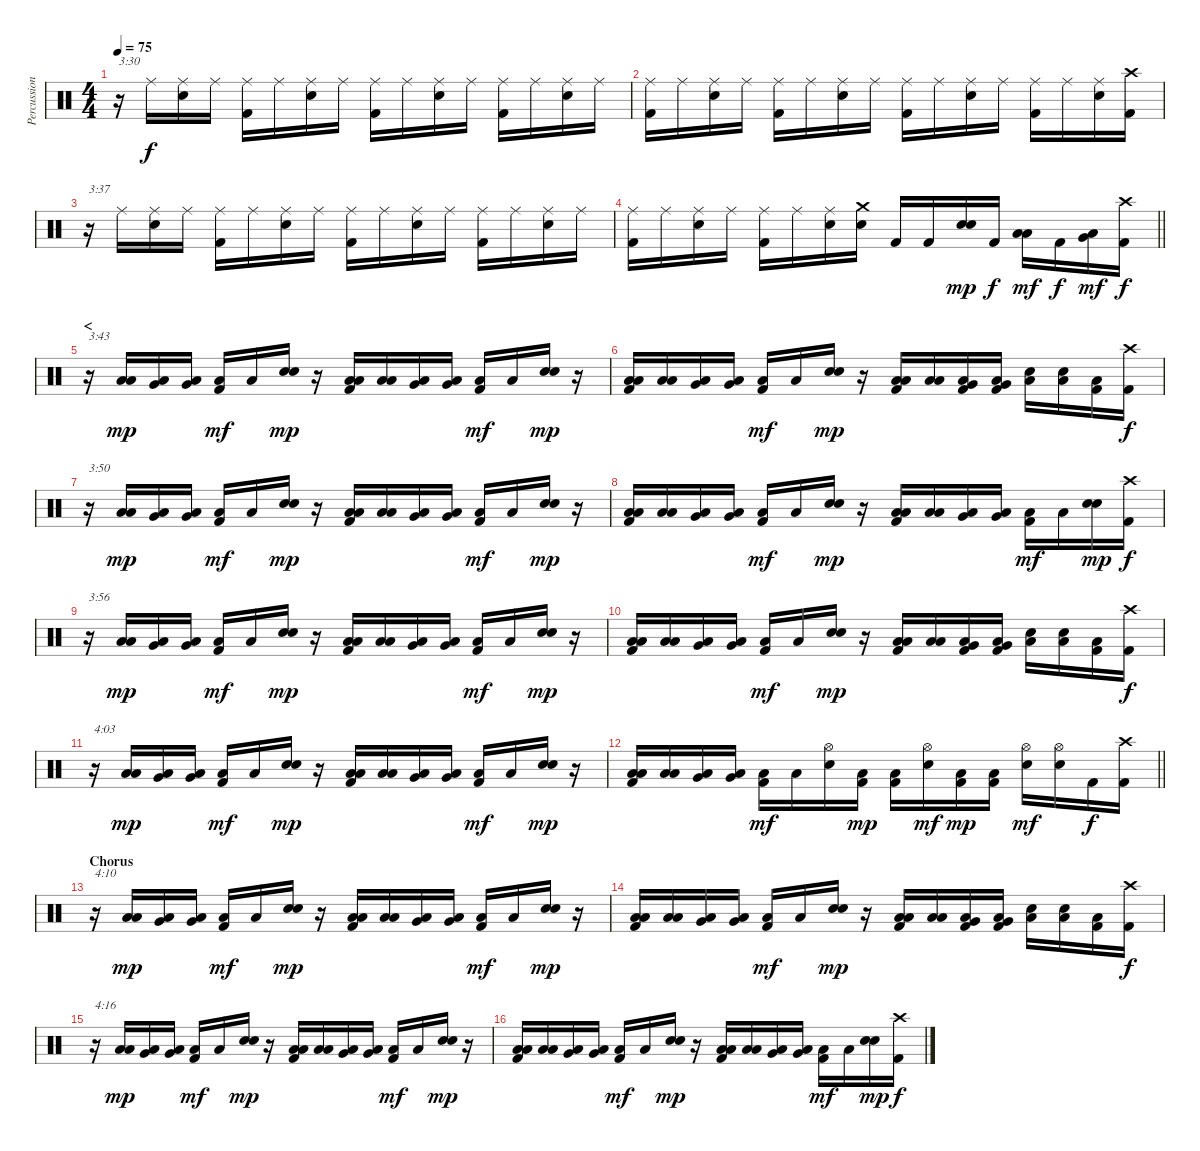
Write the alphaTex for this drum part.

\track ("Percussion" "Percussion") {instrument percussion}
\staff {score}
\articulation defaults
\ts (4 4)
\tempo 75
\clef neutral
\ks c
r.16{txt "3:30" dy f} "Ride (middle)".16 ("Ride (middle)" "Electric Snare (hit)").16 "Ride (middle)".16 ("Ride (middle)" "Kick (hit) 2").16 "Ride (middle)".16 ("Ride (middle)" "Electric Snare (hit)").16 "Ride (middle)".16 ("Ride (middle)" "Kick (hit) 2").16 "Ride (middle)".16 ("Ride (middle)" "Electric Snare (hit)").16 "Ride (middle)".16 ("Ride (middle)" "Kick (hit) 2").16 "Ride (middle)".16 ("Ride (middle)" "Electric Snare (hit)").16 "Ride (middle)".16 |
("Ride (middle)" "Kick (hit) 2").16 "Ride (middle)".16 ("Ride (middle)" "Electric Snare (hit)").16 "Ride (middle)".16 ("Ride (middle)" "Kick (hit) 2").16 "Ride (middle)".16 ("Ride (middle)" "Electric Snare (hit)").16 "Ride (middle)".16 ("Ride (middle)" "Kick (hit) 2").16 "Ride (middle)".16 ("Ride (middle)" "Electric Snare (hit)").16 "Ride (middle)".16 ("Ride (middle)" "Kick (hit) 2").16 "Ride (middle)".16 ("Ride (middle)" "Electric Snare (hit)").16 ("Crash high (hit)" "Kick (hit) 2").16 |
r.16{txt "3:37"} "Ride (middle)".16 ("Ride (middle)" "Electric Snare (hit)").16 "Ride (middle)".16 ("Ride (middle)" "Kick (hit) 2").16 "Ride (middle)".16 ("Ride (middle)" "Electric Snare (hit)").16 "Ride (middle)".16 ("Ride (middle)" "Kick (hit) 2").16 "Ride (middle)".16 ("Ride (middle)" "Electric Snare (hit)").16 "Ride (middle)".16 ("Ride (middle)" "Kick (hit) 2").16 "Ride (middle)".16 ("Ride (middle)" "Electric Snare (hit)").16 "Ride (middle)".16 |
\barLineRight lightlight
("Ride (middle)" "Kick (hit) 2").16 "Ride (middle)".16 ("Ride (middle)" "Electric Snare (hit)").16 "Ride (middle)".16 ("Ride (middle)" "Kick (hit) 2").16 "Ride (middle)".16 ("Ride (middle)" "Electric Snare (hit)").16 ("Crash medium (hit)" "Electric Snare (hit)").16 "Kick (hit) 2".16 "Kick (hit) 2".16 ("Snare (hit) 2" "Electric Snare (hit)").16{dy mp} "Kick (hit) 2".16{dy f} ("Low Tom (hit)" "Low Floor Tom (hit)").16{dy mf} "Kick (hit) 2".16{dy f} ("Very Low Tom (hit)" "Low Floor Tom (hit)").16{dy mf} ("Crash high (hit)" "Kick (hit) 2").16{dy f} |
\section ("" "<")
r.16{txt "3:43"} ("Low Tom (hit)" "Low Floor Tom (hit)").16{dy mp} ("Very Low Tom (hit)" "Low Floor Tom (hit)").16 ("Very Low Tom (hit)" "Low Floor Tom (hit)").16 ("Low Floor Tom (hit)" "Kick (hit) 2").16{dy mf} "Low Floor Tom (hit)".16 ("Snare (hit) 2" "Electric Snare (hit)").16{dy mp} r.16 ("Low Tom (hit)" "Low Floor Tom (hit)" "Kick (hit) 2").16 ("Low Tom (hit)" "Low Floor Tom (hit)").16 ("Very Low Tom (hit)" "Low Floor Tom (hit)").16 ("Very Low Tom (hit)" "Low Floor Tom (hit)").16 ("Low Floor Tom (hit)" "Kick (hit) 2").16{dy mf} "Low Floor Tom (hit)".16 ("Snare (hit) 2" "Electric Snare (hit)").16{dy mp} r.16 |
("Low Tom (hit)" "Low Floor Tom (hit)" "Kick (hit) 2").16 ("Low Tom (hit)" "Low Floor Tom (hit)").16 ("Very Low Tom (hit)" "Low Floor Tom (hit)").16 ("Very Low Tom (hit)" "Low Floor Tom (hit)").16 ("Low Floor Tom (hit)" "Kick (hit) 2").16{dy mf} "Low Floor Tom (hit)".16 ("Snare (hit) 2" "Electric Snare (hit)").16{dy mp} r.16 ("Low Tom (hit)" "Low Floor Tom (hit)" "Kick (hit) 2").16 ("Low Tom (hit)" "Low Floor Tom (hit)").16 ("Very Low Tom (hit)" "Low Floor Tom (hit)" "Kick (hit) 2").16 ("Very Low Tom (hit)" "Low Floor Tom (hit)" "Kick (hit) 2").16 ("Electric Snare (hit)" "Low Floor Tom (hit)").16 ("Electric Snare (hit)" "Low Floor Tom (hit)").16 ("Low Floor Tom (hit)" "Kick (hit) 2").16 ("Crash high (hit)" "Kick (hit) 2").16{dy f} |
r.16{txt "3:50"} ("Low Tom (hit)" "Low Floor Tom (hit)").16{dy mp} ("Very Low Tom (hit)" "Low Floor Tom (hit)").16 ("Very Low Tom (hit)" "Low Floor Tom (hit)").16 ("Low Floor Tom (hit)" "Kick (hit) 2").16{dy mf} "Low Floor Tom (hit)".16 ("Snare (hit) 2" "Electric Snare (hit)").16{dy mp} r.16 ("Low Tom (hit)" "Low Floor Tom (hit)" "Kick (hit) 2").16 ("Low Tom (hit)" "Low Floor Tom (hit)").16 ("Very Low Tom (hit)" "Low Floor Tom (hit)").16 ("Very Low Tom (hit)" "Low Floor Tom (hit)").16 ("Low Floor Tom (hit)" "Kick (hit) 2").16{dy mf} "Low Floor Tom (hit)".16 ("Snare (hit) 2" "Electric Snare (hit)").16{dy mp} r.16 |
("Low Tom (hit)" "Low Floor Tom (hit)" "Kick (hit) 2").16 ("Low Tom (hit)" "Low Floor Tom (hit)").16 ("Very Low Tom (hit)" "Low Floor Tom (hit)").16 ("Very Low Tom (hit)" "Low Floor Tom (hit)").16 ("Low Floor Tom (hit)" "Kick (hit) 2").16{dy mf} "Low Floor Tom (hit)".16 ("Snare (hit) 2" "Electric Snare (hit)").16{dy mp} r.16 ("Low Tom (hit)" "Low Floor Tom (hit)" "Kick (hit) 2").16 ("Low Tom (hit)" "Low Floor Tom (hit)").16 ("Very Low Tom (hit)" "Low Floor Tom (hit)").16 ("Very Low Tom (hit)" "Low Floor Tom (hit)").16 ("Low Floor Tom (hit)" "Kick (hit) 2").16{dy mf} "Low Floor Tom (hit)".16 ("Snare (hit) 2" "Electric Snare (hit)").16{dy mp} ("Crash high (hit)" "Kick (hit) 2").16{dy f} |
r.16{txt "3:56"} ("Low Tom (hit)" "Low Floor Tom (hit)").16{dy mp} ("Very Low Tom (hit)" "Low Floor Tom (hit)").16 ("Very Low Tom (hit)" "Low Floor Tom (hit)").16 ("Low Floor Tom (hit)" "Kick (hit) 2").16{dy mf} "Low Floor Tom (hit)".16 ("Snare (hit) 2" "Electric Snare (hit)").16{dy mp} r.16 ("Low Tom (hit)" "Low Floor Tom (hit)" "Kick (hit) 2").16 ("Low Tom (hit)" "Low Floor Tom (hit)").16 ("Very Low Tom (hit)" "Low Floor Tom (hit)").16 ("Very Low Tom (hit)" "Low Floor Tom (hit)").16 ("Low Floor Tom (hit)" "Kick (hit) 2").16{dy mf} "Low Floor Tom (hit)".16 ("Snare (hit) 2" "Electric Snare (hit)").16{dy mp} r.16 |
("Low Tom (hit)" "Low Floor Tom (hit)" "Kick (hit) 2").16 ("Low Tom (hit)" "Low Floor Tom (hit)").16 ("Very Low Tom (hit)" "Low Floor Tom (hit)").16 ("Very Low Tom (hit)" "Low Floor Tom (hit)").16 ("Low Floor Tom (hit)" "Kick (hit) 2").16{dy mf} "Low Floor Tom (hit)".16 ("Snare (hit) 2" "Electric Snare (hit)").16{dy mp} r.16 ("Low Tom (hit)" "Low Floor Tom (hit)" "Kick (hit) 2").16 ("Low Tom (hit)" "Low Floor Tom (hit)").16 ("Very Low Tom (hit)" "Low Floor Tom (hit)" "Kick (hit) 2").16 ("Very Low Tom (hit)" "Low Floor Tom (hit)" "Kick (hit) 2").16 ("Electric Snare (hit)" "Low Floor Tom (hit)").16 ("Electric Snare (hit)" "Low Floor Tom (hit)").16 ("Low Floor Tom (hit)" "Kick (hit) 2").16 ("Crash high (hit)" "Kick (hit) 2").16{dy f} |
r.16{txt "4:03"} ("Low Tom (hit)" "Low Floor Tom (hit)").16{dy mp} ("Very Low Tom (hit)" "Low Floor Tom (hit)").16 ("Very Low Tom (hit)" "Low Floor Tom (hit)").16 ("Low Floor Tom (hit)" "Kick (hit) 2").16{dy mf} "Low Floor Tom (hit)".16 ("Snare (hit) 2" "Electric Snare (hit)").16{dy mp} r.16 ("Low Tom (hit)" "Low Floor Tom (hit)" "Kick (hit) 2").16 ("Low Tom (hit)" "Low Floor Tom (hit)").16 ("Very Low Tom (hit)" "Low Floor Tom (hit)").16 ("Very Low Tom (hit)" "Low Floor Tom (hit)").16 ("Low Floor Tom (hit)" "Kick (hit) 2").16{dy mf} "Low Floor Tom (hit)".16 ("Snare (hit) 2" "Electric Snare (hit)").16{dy mp} r.16 |
\barLineRight lightlight
("Low Tom (hit)" "Low Floor Tom (hit)" "Kick (hit) 2").16 ("Low Tom (hit)" "Low Floor Tom (hit)").16 ("Very Low Tom (hit)" "Low Floor Tom (hit)").16 ("Very Low Tom (hit)" "Low Floor Tom (hit)").16 ("Low Floor Tom (hit)" "Kick (hit) 2").16{dy mf} "Low Floor Tom (hit)".16 ("Hi-Hat (open)" "Electric Snare (hit)").16 ("Low Floor Tom (hit)" "Kick (hit) 2").16{dy mp} ("Low Floor Tom (hit)" "Kick (hit) 2").16 ("Hi-Hat (open)" "Electric Snare (hit)").16{dy mf} ("Low Floor Tom (hit)" "Kick (hit) 2").16{dy mp} ("Low Floor Tom (hit)" "Kick (hit) 2").16 ("Hi-Hat (open)" "Electric Snare (hit)").16{dy mf} ("Hi-Hat (open)" "Electric Snare (hit)").16 "Kick (hit) 2".16{dy f} ("Crash high (hit)" "Kick (hit) 2").16 |
\section ("" "Chorus")
r.16{txt "4:10"} ("Low Tom (hit)" "Low Floor Tom (hit)").16{dy mp} ("Very Low Tom (hit)" "Low Floor Tom (hit)").16 ("Very Low Tom (hit)" "Low Floor Tom (hit)").16 ("Low Floor Tom (hit)" "Kick (hit) 2").16{dy mf} "Low Floor Tom (hit)".16 ("Snare (hit) 2" "Electric Snare (hit)").16{dy mp} r.16 ("Low Tom (hit)" "Low Floor Tom (hit)" "Kick (hit) 2").16 ("Low Tom (hit)" "Low Floor Tom (hit)").16 ("Very Low Tom (hit)" "Low Floor Tom (hit)").16 ("Very Low Tom (hit)" "Low Floor Tom (hit)").16 ("Low Floor Tom (hit)" "Kick (hit) 2").16{dy mf} "Low Floor Tom (hit)".16 ("Snare (hit) 2" "Electric Snare (hit)").16{dy mp} r.16 |
("Low Tom (hit)" "Low Floor Tom (hit)" "Kick (hit) 2").16 ("Low Tom (hit)" "Low Floor Tom (hit)").16 ("Very Low Tom (hit)" "Low Floor Tom (hit)").16 ("Very Low Tom (hit)" "Low Floor Tom (hit)").16 ("Low Floor Tom (hit)" "Kick (hit) 2").16{dy mf} "Low Floor Tom (hit)".16 ("Snare (hit) 2" "Electric Snare (hit)").16{dy mp} r.16 ("Low Tom (hit)" "Low Floor Tom (hit)" "Kick (hit) 2").16 ("Low Tom (hit)" "Low Floor Tom (hit)").16 ("Very Low Tom (hit)" "Low Floor Tom (hit)" "Kick (hit) 2").16 ("Very Low Tom (hit)" "Low Floor Tom (hit)" "Kick (hit) 2").16 ("Electric Snare (hit)" "Low Floor Tom (hit)").16 ("Electric Snare (hit)" "Low Floor Tom (hit)").16 ("Low Floor Tom (hit)" "Kick (hit) 2").16 ("Crash high (hit)" "Kick (hit) 2").16{dy f} |
r.16{txt "4:16"} ("Low Tom (hit)" "Low Floor Tom (hit)").16{dy mp} ("Very Low Tom (hit)" "Low Floor Tom (hit)").16 ("Very Low Tom (hit)" "Low Floor Tom (hit)").16 ("Low Floor Tom (hit)" "Kick (hit) 2").16{dy mf} "Low Floor Tom (hit)".16 ("Snare (hit) 2" "Electric Snare (hit)").16{dy mp} r.16 ("Low Tom (hit)" "Low Floor Tom (hit)" "Kick (hit) 2").16 ("Low Tom (hit)" "Low Floor Tom (hit)").16 ("Very Low Tom (hit)" "Low Floor Tom (hit)").16 ("Very Low Tom (hit)" "Low Floor Tom (hit)").16 ("Low Floor Tom (hit)" "Kick (hit) 2").16{dy mf} "Low Floor Tom (hit)".16 ("Snare (hit) 2" "Electric Snare (hit)").16{dy mp} r.16 |
("Low Tom (hit)" "Low Floor Tom (hit)" "Kick (hit) 2").16 ("Low Tom (hit)" "Low Floor Tom (hit)").16 ("Very Low Tom (hit)" "Low Floor Tom (hit)").16 ("Very Low Tom (hit)" "Low Floor Tom (hit)").16 ("Low Floor Tom (hit)" "Kick (hit) 2").16{dy mf} "Low Floor Tom (hit)".16 ("Snare (hit) 2" "Electric Snare (hit)").16{dy mp} r.16 ("Low Tom (hit)" "Low Floor Tom (hit)" "Kick (hit) 2").16 ("Low Tom (hit)" "Low Floor Tom (hit)").16 ("Very Low Tom (hit)" "Low Floor Tom (hit)").16 ("Very Low Tom (hit)" "Low Floor Tom (hit)").16 ("Low Floor Tom (hit)" "Kick (hit) 2").16{dy mf} "Low Floor Tom (hit)".16 ("Snare (hit) 2" "Electric Snare (hit)").16{dy mp} ("Crash high (hit)" "Kick (hit) 2").16{dy f}
